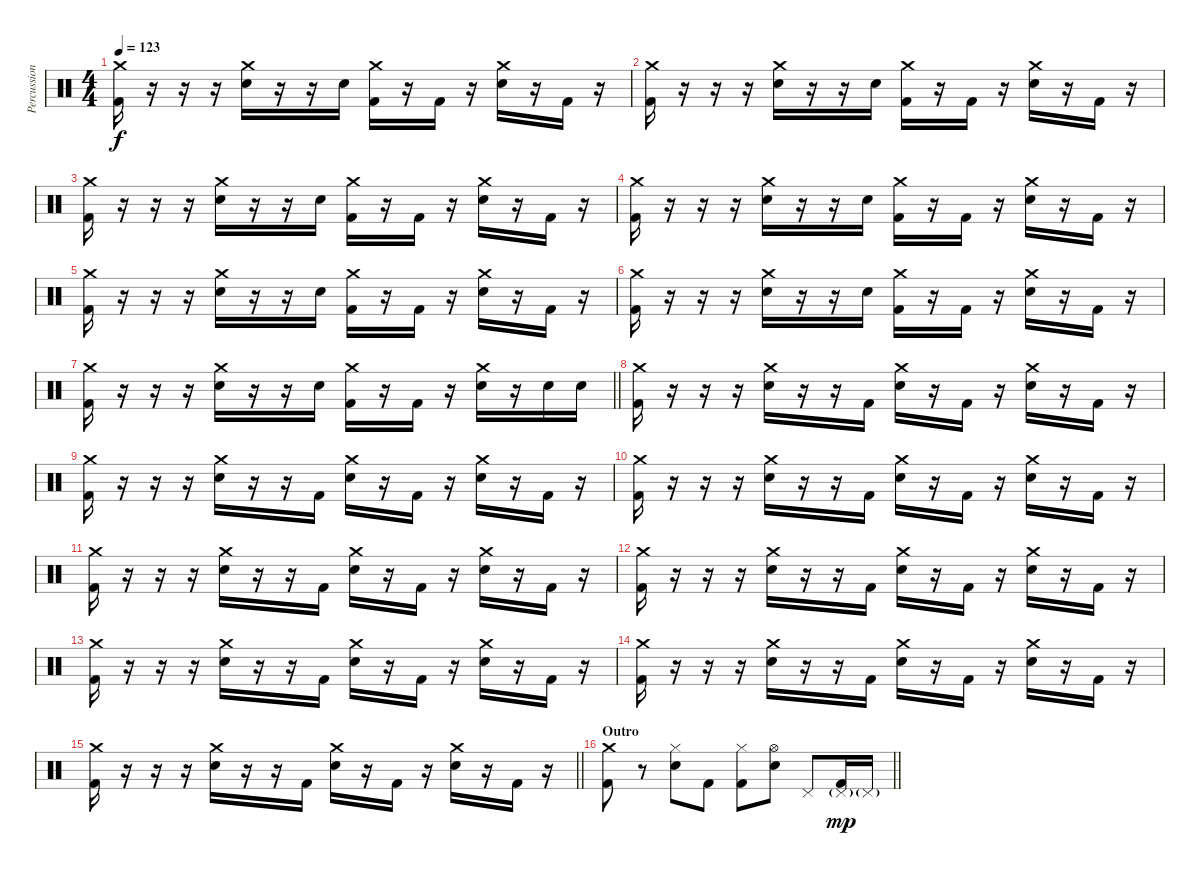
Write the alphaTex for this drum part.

\track ("Percussion" "Percussion") {instrument percussion}
\staff {score}
\articulation defaults
\ts (4 4)
\tempo 123
\clef neutral
\ks c
("Crash medium (hit)" "Kick (hit) 2").16{dy f} r.16 r.16 r.16 ("Crash medium (hit)" "Electric Snare (hit)").16 r.16 r.16 "Electric Snare (hit)".16 ("Crash medium (hit)" "Kick (hit) 2").16 r.16 "Kick (hit) 2".16 r.16 ("Crash medium (hit)" "Electric Snare (hit)").16 r.16 "Kick (hit) 2".16 r.16 |
("Crash medium (hit)" "Kick (hit) 2").16 r.16 r.16 r.16 ("Crash medium (hit)" "Electric Snare (hit)").16 r.16 r.16 "Electric Snare (hit)".16 ("Crash medium (hit)" "Kick (hit) 2").16 r.16 "Kick (hit) 2".16 r.16 ("Crash medium (hit)" "Electric Snare (hit)").16 r.16 "Kick (hit) 2".16 r.16 |
("Crash medium (hit)" "Kick (hit) 2").16 r.16 r.16 r.16 ("Crash medium (hit)" "Electric Snare (hit)").16 r.16 r.16 "Electric Snare (hit)".16 ("Crash medium (hit)" "Kick (hit) 2").16 r.16 "Kick (hit) 2".16 r.16 ("Crash medium (hit)" "Electric Snare (hit)").16 r.16 "Kick (hit) 2".16 r.16 |
("Crash medium (hit)" "Kick (hit) 2").16 r.16 r.16 r.16 ("Crash medium (hit)" "Electric Snare (hit)").16 r.16 r.16 "Electric Snare (hit)".16 ("Crash medium (hit)" "Kick (hit) 2").16 r.16 "Kick (hit) 2".16 r.16 ("Crash medium (hit)" "Electric Snare (hit)").16 r.16 "Kick (hit) 2".16 r.16 |
("Crash medium (hit)" "Kick (hit) 2").16 r.16 r.16 r.16 ("Crash medium (hit)" "Electric Snare (hit)").16 r.16 r.16 "Electric Snare (hit)".16 ("Crash medium (hit)" "Kick (hit) 2").16 r.16 "Kick (hit) 2".16 r.16 ("Crash medium (hit)" "Electric Snare (hit)").16 r.16 "Kick (hit) 2".16 r.16 |
("Crash medium (hit)" "Kick (hit) 2").16 r.16 r.16 r.16 ("Crash medium (hit)" "Electric Snare (hit)").16 r.16 r.16 "Electric Snare (hit)".16 ("Crash medium (hit)" "Kick (hit) 2").16 r.16 "Kick (hit) 2".16 r.16 ("Crash medium (hit)" "Electric Snare (hit)").16 r.16 "Kick (hit) 2".16 r.16 |
\barLineRight lightlight
("Crash medium (hit)" "Kick (hit) 2").16 r.16 r.16 r.16 ("Crash medium (hit)" "Electric Snare (hit)").16 r.16 r.16 "Electric Snare (hit)".16 ("Crash medium (hit)" "Kick (hit) 2").16 r.16 "Kick (hit) 2".16 r.16 ("Crash medium (hit)" "Electric Snare (hit)").16 r.16 "Electric Snare (hit)".16 "Electric Snare (hit)".16 |
\section ("" "")
("Crash medium (hit)" "Kick (hit) 2").16 r.16 r.16 r.16 ("Crash medium (hit)" "Electric Snare (hit)").16 r.16 r.16 "Kick (hit) 2".16 ("Crash medium (hit)" "Electric Snare (hit)").16 r.16 "Kick (hit) 2".16 r.16 ("Crash medium (hit)" "Electric Snare (hit)").16 r.16 "Kick (hit) 2".16 r.16 |
("Crash medium (hit)" "Kick (hit) 2").16 r.16 r.16 r.16 ("Crash medium (hit)" "Electric Snare (hit)").16 r.16 r.16 "Kick (hit) 2".16 ("Crash medium (hit)" "Electric Snare (hit)").16 r.16 "Kick (hit) 2".16 r.16 ("Crash medium (hit)" "Electric Snare (hit)").16 r.16 "Kick (hit) 2".16 r.16 |
("Crash medium (hit)" "Kick (hit) 2").16 r.16 r.16 r.16 ("Crash medium (hit)" "Electric Snare (hit)").16 r.16 r.16 "Kick (hit) 2".16 ("Crash medium (hit)" "Electric Snare (hit)").16 r.16 "Kick (hit) 2".16 r.16 ("Crash medium (hit)" "Electric Snare (hit)").16 r.16 "Kick (hit) 2".16 r.16 |
("Crash medium (hit)" "Kick (hit) 2").16 r.16 r.16 r.16 ("Crash medium (hit)" "Electric Snare (hit)").16 r.16 r.16 "Kick (hit) 2".16 ("Crash medium (hit)" "Electric Snare (hit)").16 r.16 "Kick (hit) 2".16 r.16 ("Crash medium (hit)" "Electric Snare (hit)").16 r.16 "Kick (hit) 2".16 r.16 |
("Crash medium (hit)" "Kick (hit) 2").16 r.16 r.16 r.16 ("Crash medium (hit)" "Electric Snare (hit)").16 r.16 r.16 "Kick (hit) 2".16 ("Crash medium (hit)" "Electric Snare (hit)").16 r.16 "Kick (hit) 2".16 r.16 ("Crash medium (hit)" "Electric Snare (hit)").16 r.16 "Kick (hit) 2".16 r.16 |
("Crash medium (hit)" "Kick (hit) 2").16 r.16 r.16 r.16 ("Crash medium (hit)" "Electric Snare (hit)").16 r.16 r.16 "Kick (hit) 2".16 ("Crash medium (hit)" "Electric Snare (hit)").16 r.16 "Kick (hit) 2".16 r.16 ("Crash medium (hit)" "Electric Snare (hit)").16 r.16 "Kick (hit) 2".16 r.16 |
("Crash medium (hit)" "Kick (hit) 2").16 r.16 r.16 r.16 ("Crash medium (hit)" "Electric Snare (hit)").16 r.16 r.16 "Kick (hit) 2".16 ("Crash medium (hit)" "Electric Snare (hit)").16 r.16 "Kick (hit) 2".16 r.16 ("Crash medium (hit)" "Electric Snare (hit)").16 r.16 "Kick (hit) 2".16 r.16 |
\barLineRight lightlight
("Crash medium (hit)" "Kick (hit) 2").16 r.16 r.16 r.16 ("Crash medium (hit)" "Electric Snare (hit)").16 r.16 r.16 "Kick (hit) 2".16 ("Crash medium (hit)" "Electric Snare (hit)").16 r.16 "Kick (hit) 2".16 r.16 ("Crash medium (hit)" "Electric Snare (hit)").16 r.16 "Kick (hit) 2".16 r.16 |
\section ("" "Outro")
\barLineRight lightlight
("Crash medium (hit)" "Kick (hit) 2").8 r.8 ("Hi-Hat (closed)" "Electric Snare (hit)").8 "Kick (hit) 2".8 ("Hi-Hat (closed)" "Kick (hit) 2").8 ("Hi-Hat (open)" "Electric Snare (hit)").8 "Pedal Hi-Hat (hit)".8 ("Pedal Hi-Hat (hit)"{g} "Kick (hit) 2").16{dy mp} "Pedal Hi-Hat (hit)"{g}.16
